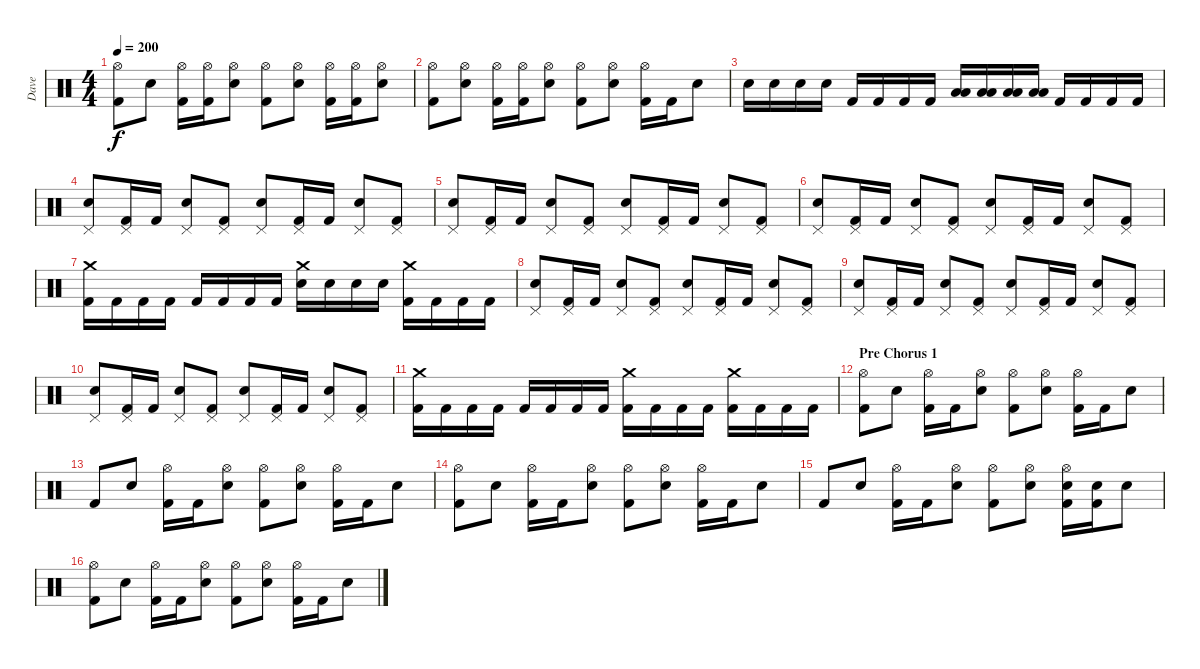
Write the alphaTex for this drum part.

\track ("Dave" "Dave") {instrument percussion}
\staff {score}
\articulation defaults
\ts (4 4)
\tempo 200
\clef neutral
\ks c
("Hi-Hat (open)" "Kick (hit) 2").8{dy f} "Snare (hit) 2".8 ("Hi-Hat (open)" "Kick (hit) 2").16 ("Hi-Hat (open)" "Kick (hit) 2").16 ("Hi-Hat (open)" "Snare (hit) 2").8 ("Hi-Hat (open)" "Kick (hit) 2").8 ("Hi-Hat (open)" "Snare (hit) 2").8 ("Hi-Hat (open)" "Kick (hit) 2").16 ("Hi-Hat (open)" "Kick (hit) 2").16 ("Hi-Hat (open)" "Snare (hit) 2").8 |
("Hi-Hat (open)" "Kick (hit) 2").8 ("Hi-Hat (open)" "Snare (hit) 2").8 ("Hi-Hat (open)" "Kick (hit) 2").16 ("Hi-Hat (open)" "Kick (hit) 2").16 ("Hi-Hat (open)" "Snare (hit) 2").8 ("Hi-Hat (open)" "Kick (hit) 2").8 ("Hi-Hat (open)" "Snare (hit) 2").8 ("Hi-Hat (open)" "Kick (hit) 2").16 "Kick (hit) 2".16 "Snare (hit) 2".8 |
"Snare (hit) 2".16 "Snare (hit) 2".16 "Snare (hit) 2".16 "Snare (hit) 2".16 "Kick (hit) 2".16 "Kick (hit) 2".16 "Kick (hit) 2".16 "Kick (hit) 2".16 ("Low Floor Tom (hit)" "Low Floor Tom (hit)").16 ("Low Floor Tom (hit)" "Low Floor Tom (hit)").16 ("Low Floor Tom (hit)" "Low Floor Tom (hit)").16 ("Low Floor Tom (hit)" "Low Floor Tom (hit)").16 "Kick (hit) 2".16 "Kick (hit) 2".16 "Kick (hit) 2".16 "Kick (hit) 2".16 |
("Pedal Hi-Hat (hit)" "Snare (hit) 2").8 ("Pedal Hi-Hat (hit)" "Kick (hit) 2").16 "Kick (hit) 2".16 ("Pedal Hi-Hat (hit)" "Snare (hit) 2").8 ("Pedal Hi-Hat (hit)" "Kick (hit) 2").8 ("Pedal Hi-Hat (hit)" "Snare (hit) 2").8 ("Pedal Hi-Hat (hit)" "Kick (hit) 2").16 "Kick (hit) 2".16 ("Pedal Hi-Hat (hit)" "Snare (hit) 2").8 ("Pedal Hi-Hat (hit)" "Kick (hit) 2").8 |
("Pedal Hi-Hat (hit)" "Snare (hit) 2").8 ("Pedal Hi-Hat (hit)" "Kick (hit) 2").16 "Kick (hit) 2".16 ("Pedal Hi-Hat (hit)" "Snare (hit) 2").8 ("Pedal Hi-Hat (hit)" "Kick (hit) 2").8 ("Pedal Hi-Hat (hit)" "Snare (hit) 2").8 ("Pedal Hi-Hat (hit)" "Kick (hit) 2").16 "Kick (hit) 2".16 ("Pedal Hi-Hat (hit)" "Snare (hit) 2").8 ("Pedal Hi-Hat (hit)" "Kick (hit) 2").8 |
("Pedal Hi-Hat (hit)" "Snare (hit) 2").8 ("Pedal Hi-Hat (hit)" "Kick (hit) 2").16 "Kick (hit) 2".16 ("Pedal Hi-Hat (hit)" "Snare (hit) 2").8 ("Pedal Hi-Hat (hit)" "Kick (hit) 2").8 ("Pedal Hi-Hat (hit)" "Snare (hit) 2").8 ("Pedal Hi-Hat (hit)" "Kick (hit) 2").16 "Kick (hit) 2".16 ("Pedal Hi-Hat (hit)" "Snare (hit) 2").8 ("Pedal Hi-Hat (hit)" "Kick (hit) 2").8 |
("Crash medium (hit)" "Kick (hit) 2").16 "Kick (hit) 2".16 "Kick (hit) 2".16 "Kick (hit) 2".16 "Kick (hit) 2".16 "Kick (hit) 2".16 "Kick (hit) 2".16 "Kick (hit) 2".16 ("Crash medium (hit)" "Snare (hit) 2").16 "Snare (hit) 2".16 "Snare (hit) 2".16 "Snare (hit) 2".16 ("Crash medium (hit)" "Kick (hit) 2").16 "Kick (hit) 2".16 "Kick (hit) 2".16 "Kick (hit) 2".16 |
("Pedal Hi-Hat (hit)" "Snare (hit) 2").8 ("Pedal Hi-Hat (hit)" "Kick (hit) 2").16 "Kick (hit) 2".16 ("Pedal Hi-Hat (hit)" "Snare (hit) 2").8 ("Pedal Hi-Hat (hit)" "Kick (hit) 2").8 ("Pedal Hi-Hat (hit)" "Snare (hit) 2").8 ("Pedal Hi-Hat (hit)" "Kick (hit) 2").16 "Kick (hit) 2".16 ("Pedal Hi-Hat (hit)" "Snare (hit) 2").8 ("Pedal Hi-Hat (hit)" "Kick (hit) 2").8 |
("Pedal Hi-Hat (hit)" "Snare (hit) 2").8 ("Pedal Hi-Hat (hit)" "Kick (hit) 2").16 "Kick (hit) 2".16 ("Pedal Hi-Hat (hit)" "Snare (hit) 2").8 ("Pedal Hi-Hat (hit)" "Kick (hit) 2").8 ("Pedal Hi-Hat (hit)" "Snare (hit) 2").8 ("Pedal Hi-Hat (hit)" "Kick (hit) 2").16 "Kick (hit) 2".16 ("Pedal Hi-Hat (hit)" "Snare (hit) 2").8 ("Pedal Hi-Hat (hit)" "Kick (hit) 2").8 |
("Pedal Hi-Hat (hit)" "Snare (hit) 2").8 ("Pedal Hi-Hat (hit)" "Kick (hit) 2").16 "Kick (hit) 2".16 ("Pedal Hi-Hat (hit)" "Snare (hit) 2").8 ("Pedal Hi-Hat (hit)" "Kick (hit) 2").8 ("Pedal Hi-Hat (hit)" "Snare (hit) 2").8 ("Pedal Hi-Hat (hit)" "Kick (hit) 2").16 "Kick (hit) 2".16 ("Pedal Hi-Hat (hit)" "Snare (hit) 2").8 ("Pedal Hi-Hat (hit)" "Kick (hit) 2").8 |
("Crash medium (hit)" "Kick (hit) 2").16 "Kick (hit) 2".16 "Kick (hit) 2".16 "Kick (hit) 2".16 "Kick (hit) 2".16 "Kick (hit) 2".16 "Kick (hit) 2".16 "Kick (hit) 2".16 ("Crash medium (hit)" "Kick (hit) 2").16 "Kick (hit) 2".16 "Kick (hit) 2".16 "Kick (hit) 2".16 ("Crash medium (hit)" "Kick (hit) 2").16 "Kick (hit) 2".16 "Kick (hit) 2".16 "Kick (hit) 2".16 |
\section ("" "Pre Chorus 1")
("Hi-Hat (open)" "Kick (hit) 2").8 "Snare (hit) 2".8 ("Hi-Hat (open)" "Kick (hit) 2").16 "Kick (hit) 2".16 ("Hi-Hat (open)" "Snare (hit) 2").8 ("Hi-Hat (open)" "Kick (hit) 2").8 ("Hi-Hat (open)" "Snare (hit) 2").8 ("Hi-Hat (open)" "Kick (hit) 2").16 "Kick (hit) 2".16 "Snare (hit) 2".8 |
"Kick (hit) 2".8 "Snare (hit) 2".8 ("Hi-Hat (open)" "Kick (hit) 2").16 "Kick (hit) 2".16 ("Hi-Hat (open)" "Snare (hit) 2").8 ("Hi-Hat (open)" "Kick (hit) 2").8 ("Hi-Hat (open)" "Snare (hit) 2").8 ("Hi-Hat (open)" "Kick (hit) 2").16 "Kick (hit) 2".16 "Snare (hit) 2".8 |
("Hi-Hat (open)" "Kick (hit) 2").8 "Snare (hit) 2".8 ("Hi-Hat (open)" "Kick (hit) 2").16 "Kick (hit) 2".16 ("Hi-Hat (open)" "Snare (hit) 2").8 ("Hi-Hat (open)" "Kick (hit) 2").8 ("Hi-Hat (open)" "Snare (hit) 2").8 ("Hi-Hat (open)" "Kick (hit) 2").16 "Kick (hit) 2".16 "Snare (hit) 2".8 |
"Kick (hit) 2".8 "Snare (hit) 2".8 ("Hi-Hat (open)" "Kick (hit) 2").16 "Kick (hit) 2".16 ("Hi-Hat (open)" "Snare (hit) 2").8 ("Hi-Hat (open)" "Kick (hit) 2").8 ("Hi-Hat (open)" "Snare (hit) 2").8 ("Hi-Hat (open)" "Snare (hit) 2" "Kick (hit) 2").16 ("Snare (hit) 2" "Kick (hit) 2").16 "Snare (hit) 2".8 |
("Hi-Hat (open)" "Kick (hit) 2").8 "Snare (hit) 2".8 ("Hi-Hat (open)" "Kick (hit) 2").16 "Kick (hit) 2".16 ("Hi-Hat (open)" "Snare (hit) 2").8 ("Hi-Hat (open)" "Kick (hit) 2").8 ("Hi-Hat (open)" "Snare (hit) 2").8 ("Hi-Hat (open)" "Kick (hit) 2").16 "Kick (hit) 2".16 "Snare (hit) 2".8
